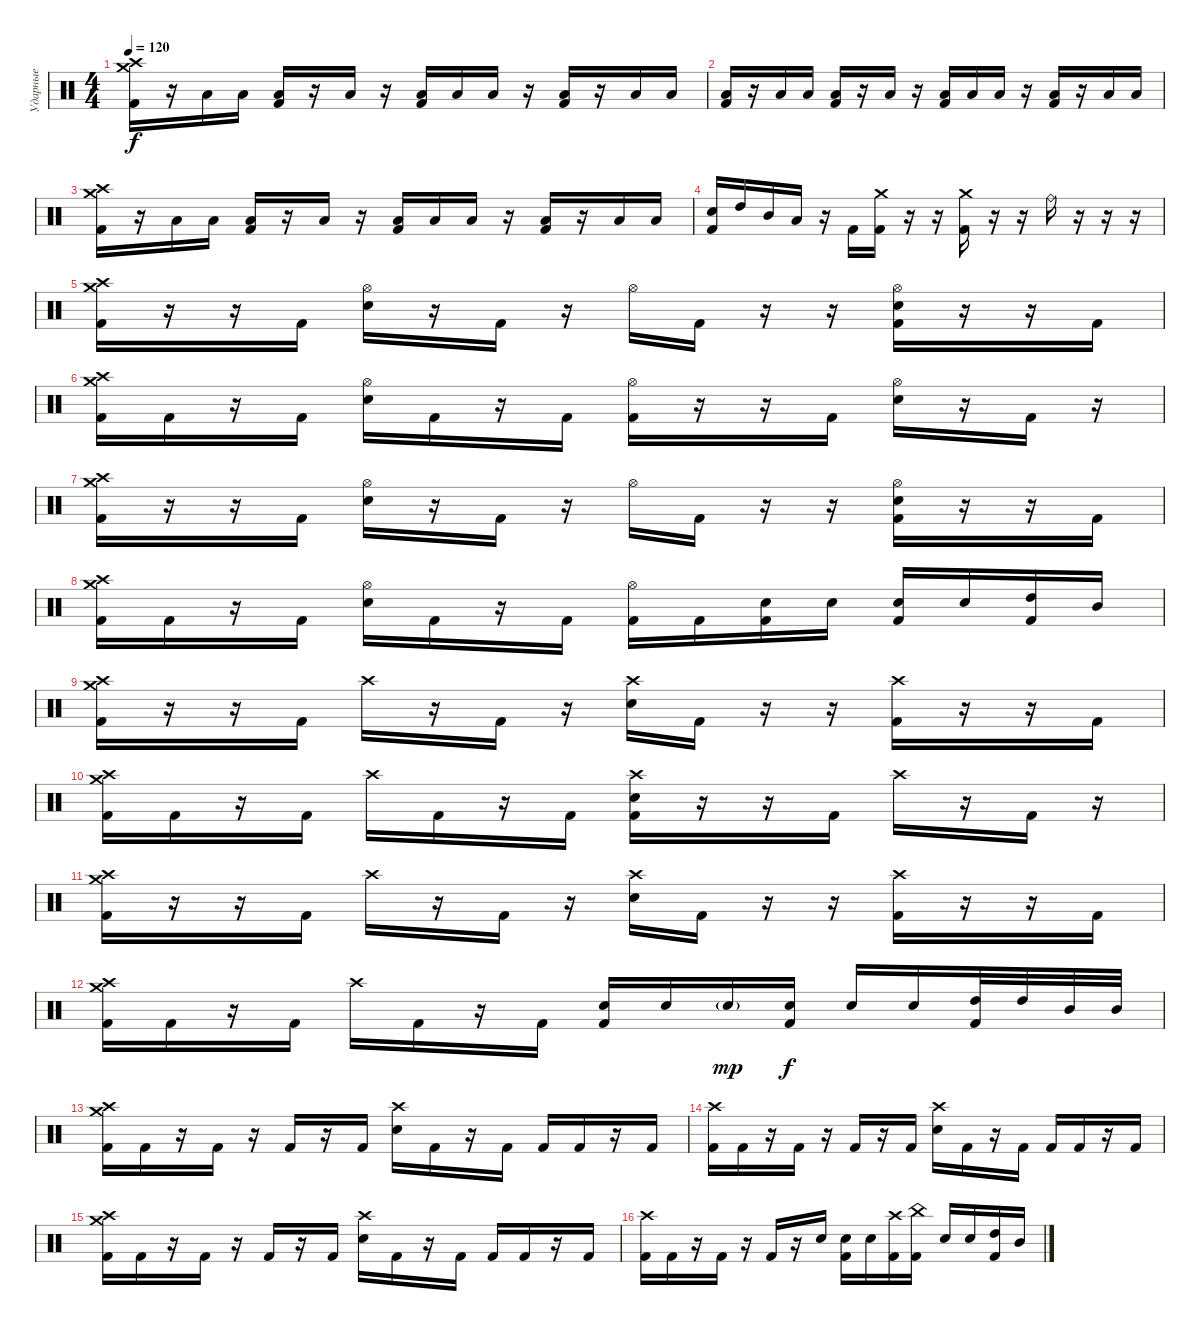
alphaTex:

\track ("Ударные" "Ударные") {instrument percussion}
\staff {score}
\articulation defaults
\ts (4 4)
\tempo 120
\clef neutral
\ks c
("Crash high (hit)" "Crash medium (hit)" "Kick (hit) 2").16{dy f} r.16 "Low Tom (hit)".16 "Low Tom (hit)".16 ("Low Tom (hit)" "Kick (hit) 2").16 r.16 "Low Tom (hit)".16 r.16 ("Low Tom (hit)" "Kick (hit) 2").16 "Low Tom (hit)".16 "Low Tom (hit)".16 r.16 ("Low Tom (hit)" "Kick (hit) 2").16 r.16 "Low Tom (hit)".16 "Low Tom (hit)".16 |
("Low Tom (hit)" "Kick (hit) 2").16 r.16 "Low Tom (hit)".16 "Low Tom (hit)".16 ("Low Tom (hit)" "Kick (hit) 2").16 r.16 "Low Tom (hit)".16 r.16 ("Low Tom (hit)" "Kick (hit) 2").16 "Low Tom (hit)".16 "Low Tom (hit)".16 r.16 ("Low Tom (hit)" "Kick (hit) 2").16 r.16 "Low Tom (hit)".16 "Low Tom (hit)".16 |
("Crash high (hit)" "Crash medium (hit)" "Kick (hit) 2").16 r.16 "Low Tom (hit)".16 "Low Tom (hit)".16 ("Low Tom (hit)" "Kick (hit) 2").16 r.16 "Low Tom (hit)".16 r.16 ("Low Tom (hit)" "Kick (hit) 2").16 "Low Tom (hit)".16 "Low Tom (hit)".16 r.16 ("Low Tom (hit)" "Kick (hit) 2").16 r.16 "Low Tom (hit)".16 "Low Tom (hit)".16 |
("Electric Snare (hit)" "Kick (hit) 2").16 "High Tom (hit)".16 "Mid Tom (hit)".16 "Low Tom (hit)".16 r.16 "Kick (hit) 2".16 ("Crash medium (hit)" "Kick (hit) 2").16 r.16 r.16 ("Crash medium (hit)" "Kick (hit) 2").16 r.16 r.16 "Ride (bell)".16 r.16 r.16 r.16 |
("Crash medium (hit)" "Crash high (hit)" "Kick (hit) 2").16 r.16 r.16 "Kick (hit) 2".16 ("Hi-Hat (open)" "Electric Snare (hit)").16 r.16 "Kick (hit) 2".16 r.16 "Hi-Hat (open)".16 "Kick (hit) 2".16 r.16 r.16 ("Hi-Hat (open)" "Electric Snare (hit)" "Kick (hit) 2").16 r.16 r.16 "Kick (hit) 2".16 |
("Crash medium (hit)" "Crash high (hit)" "Kick (hit) 2").16 "Kick (hit) 2".16 r.16 "Kick (hit) 2".16 ("Hi-Hat (open)" "Electric Snare (hit)").16 "Kick (hit) 2".16 r.16 "Kick (hit) 2".16 ("Hi-Hat (open)" "Kick (hit) 2").16 r.16 r.16 "Kick (hit) 2".16 ("Hi-Hat (open)" "Electric Snare (hit)").16 r.16 "Kick (hit) 2".16 r.16 |
("Crash medium (hit)" "Crash high (hit)" "Kick (hit) 2").16 r.16 r.16 "Kick (hit) 2".16 ("Hi-Hat (open)" "Electric Snare (hit)").16 r.16 "Kick (hit) 2".16 r.16 "Hi-Hat (open)".16 "Kick (hit) 2".16 r.16 r.16 ("Hi-Hat (open)" "Electric Snare (hit)" "Kick (hit) 2").16 r.16 r.16 "Kick (hit) 2".16 |
("Crash medium (hit)" "Crash high (hit)" "Kick (hit) 2").16 "Kick (hit) 2".16 r.16 "Kick (hit) 2".16 ("Hi-Hat (open)" "Electric Snare (hit)").16 "Kick (hit) 2".16 r.16 "Kick (hit) 2".16 ("Hi-Hat (open)" "Kick (hit) 2").16 "Kick (hit) 2".16 ("Electric Snare (hit)" "Kick (hit) 2").16 "Electric Snare (hit)".16 ("Electric Snare (hit)" "Kick (hit) 2").16 "Electric Snare (hit)".16 ("High Tom (hit)" "Kick (hit) 2").16 "Mid Tom (hit)".16 |
("Crash medium (hit)" "Crash high (hit)" "Kick (hit) 2").16 r.16 r.16 "Kick (hit) 2".16 "Crash high (hit)".16 r.16 "Kick (hit) 2".16 r.16 ("Crash high (hit)" "Electric Snare (hit)").16 "Kick (hit) 2".16 r.16 r.16 ("Crash high (hit)" "Kick (hit) 2").16 r.16 r.16 "Kick (hit) 2".16 |
("Crash medium (hit)" "Crash high (hit)" "Kick (hit) 2").16 "Kick (hit) 2".16 r.16 "Kick (hit) 2".16 "Crash high (hit)".16 "Kick (hit) 2".16 r.16 "Kick (hit) 2".16 ("Crash high (hit)" "Electric Snare (hit)" "Kick (hit) 2").16 r.16 r.16 "Kick (hit) 2".16 "Crash high (hit)".16 r.16 "Kick (hit) 2".16 r.16 |
("Crash medium (hit)" "Crash high (hit)" "Kick (hit) 2").16 r.16 r.16 "Kick (hit) 2".16 "Crash high (hit)".16 r.16 "Kick (hit) 2".16 r.16 ("Crash high (hit)" "Electric Snare (hit)").16 "Kick (hit) 2".16 r.16 r.16 ("Crash high (hit)" "Kick (hit) 2").16 r.16 r.16 "Kick (hit) 2".16 |
("Crash medium (hit)" "Crash high (hit)" "Kick (hit) 2").16 "Kick (hit) 2".16 r.16 "Kick (hit) 2".16 "Crash high (hit)".16 "Kick (hit) 2".16 r.16 "Kick (hit) 2".16 ("Electric Snare (hit)" "Kick (hit) 2").16 "Electric Snare (hit)".16 "Electric Snare (hit)"{g}.16{dy mp} ("Electric Snare (hit)" "Kick (hit) 2").16{dy f} "Electric Snare (hit)".16 "Electric Snare (hit)".16 ("High Tom (hit)" "Kick (hit) 2").32 "High Tom (hit)".32 "Mid Tom (hit)".32 "Mid Tom (hit)".32 |
("Crash high (hit)" "Crash medium (hit)" "Kick (hit) 2").16 "Kick (hit) 2".16 r.16 "Kick (hit) 2".16 r.16 "Kick (hit) 2".16 r.16 "Kick (hit) 2".16 ("Crash high (hit)" "Electric Snare (hit)").16 "Kick (hit) 2".16 r.16 "Kick (hit) 2".16 "Kick (hit) 2".16 "Kick (hit) 2".16 r.16 "Kick (hit) 2".16 |
("Crash high (hit)" "Kick (hit) 2").16 "Kick (hit) 2".16 r.16 "Kick (hit) 2".16 r.16 "Kick (hit) 2".16 r.16 "Kick (hit) 2".16 ("Crash high (hit)" "Electric Snare (hit)").16 "Kick (hit) 2".16 r.16 "Kick (hit) 2".16 "Kick (hit) 2".16 "Kick (hit) 2".16 r.16 "Kick (hit) 2".16 |
("Crash high (hit)" "Crash medium (hit)" "Kick (hit) 2").16 "Kick (hit) 2".16 r.16 "Kick (hit) 2".16 r.16 "Kick (hit) 2".16 r.16 "Kick (hit) 2".16 ("Crash high (hit)" "Electric Snare (hit)").16 "Kick (hit) 2".16 r.16 "Kick (hit) 2".16 "Kick (hit) 2".16 "Kick (hit) 2".16 r.16 "Kick (hit) 2".16 |
("Crash high (hit)" "Kick (hit) 2").16 "Kick (hit) 2".16 r.16 "Kick (hit) 2".16 r.16 "Kick (hit) 2".16 r.16 "Electric Snare (hit)".16 ("Electric Snare (hit)" "Kick (hit) 2").16 "Electric Snare (hit)".16 ("Crash high (hit)" "Kick (hit) 2").16 ("China (hit)" "Kick (hit) 2").16 "Electric Snare (hit)".16 "Electric Snare (hit)".16 ("High Tom (hit)" "Kick (hit) 2").16 "Mid Tom (hit)".16
